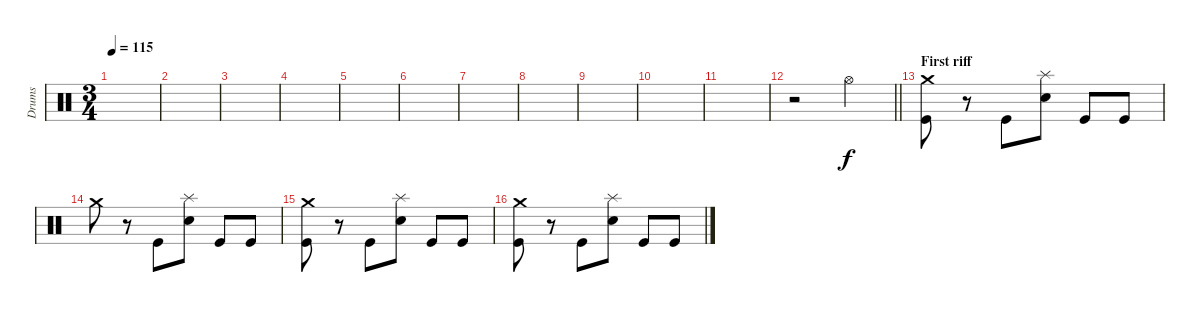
\track ("Drums" "Drums") {instrument percussion}
\staff {score}
\articulation defaults
\ts (3 4)
\tempo 115
\clef neutral
\ks c
|
|
|
|
|
|
|
|
|
|
|
\barLineRight lightlight
r.2 "Hi-Hat (open)".4 |
\section ("" "First riff")
("Crash medium (hit)" "Kick (hit)").8 r.8 "Kick (hit)".8 ("Splash (hit)" "Electric Snare (hit)").8 "Kick (hit)".8 "Kick (hit)".8 |
"Crash medium (hit)".8 r.8 "Kick (hit)".8 ("Splash (hit)" "Electric Snare (hit)").8 "Kick (hit)".8 "Kick (hit)".8 |
("Crash medium (hit)" "Kick (hit)").8 r.8 "Kick (hit)".8 ("Splash (hit)" "Electric Snare (hit)").8 "Kick (hit)".8 "Kick (hit)".8 |
("Crash medium (hit)" "Kick (hit)").8 r.8 "Kick (hit)".8 ("Splash (hit)" "Electric Snare (hit)").8 "Kick (hit)".8 "Kick (hit)".8
